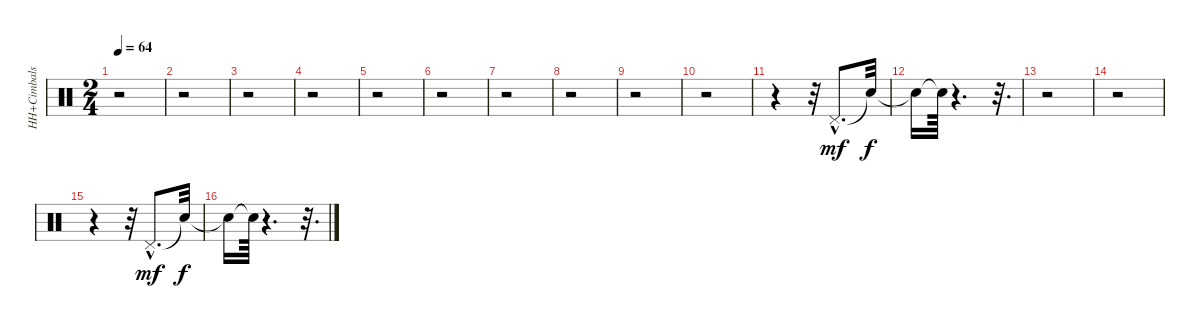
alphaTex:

\track ("HH+Cimbals" "HH+Cimbals") {instrument percussion}
\staff {score}
\articulation defaults
\ts (2 4)
\tempo 64
\clef neutral
\ks c
r.2{dy f} |
r.2 |
r.2 |
r.2 |
r.2 |
r.2 |
r.2 |
r.2 |
r.2 |
r.2 |
r.4 r.32 "Pedal Hi-Hat (hit)"{hac}.8{d dy mf} "Snare (hit)"{t}.32{dy f} |
"Snare (hit)"{t}.16 "Snare (hit)"{t}.64 r.4{d} r.32{d} |
r.2 |
r.2 |
r.4 r.32 "Pedal Hi-Hat (hit)"{hac}.8{d dy mf} "Snare (hit)"{t}.32{dy f} |
"Snare (hit)"{t}.16 "Snare (hit)"{t}.64 r.4{d} r.32{d}
